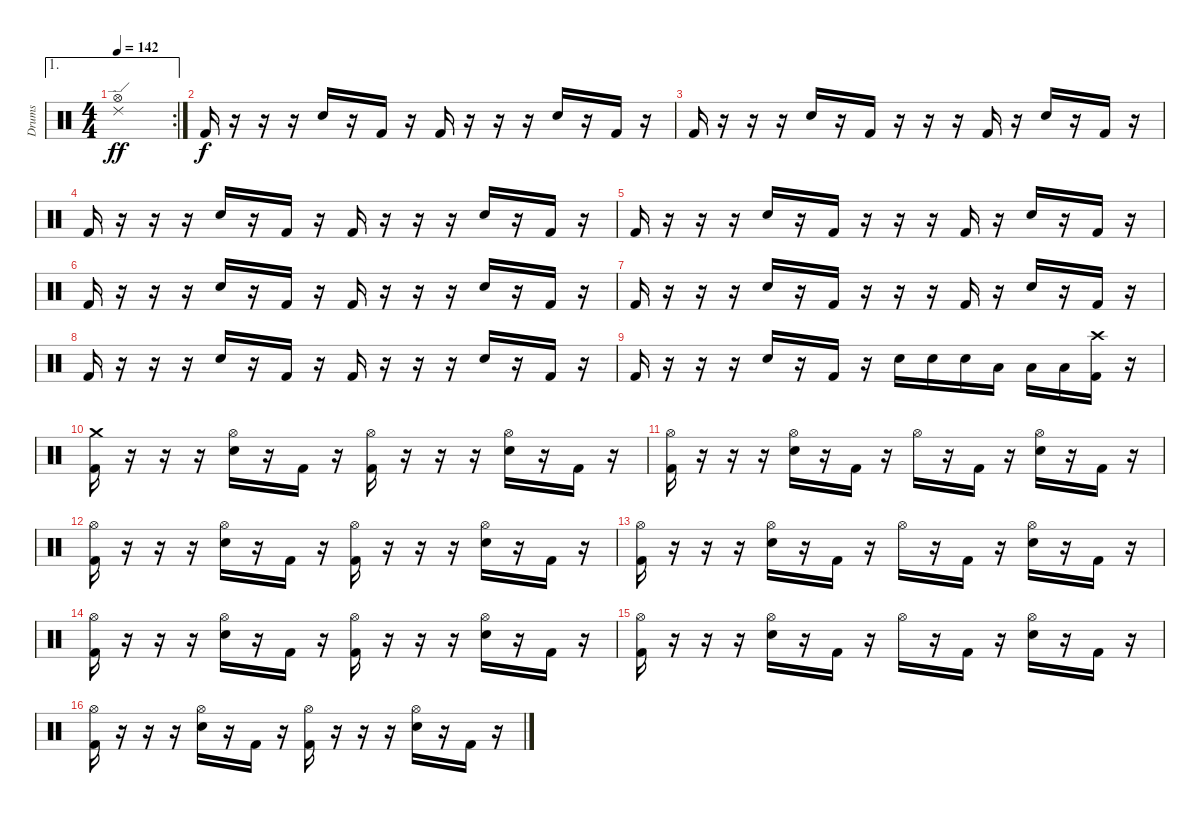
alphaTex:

\track ("Drums" "Drums") {instrument percussion}
\staff {score}
\articulation defaults
\ae 1
\rc 2
\ts (4 4)
\tempo 142
\clef neutral
\ks c
("Ride (edge) 2" "Hi-Hat (open)").1{dy ff} |
"Kick (hit) 2".16{dy f} r.16 r.16 r.16 "Electric Snare (hit)".16 r.16 "Kick (hit) 2".16 r.16 "Kick (hit) 2".16 r.16 r.16 r.16 "Electric Snare (hit)".16 r.16 "Kick (hit) 2".16 r.16 |
"Kick (hit) 2".16 r.16 r.16 r.16 "Electric Snare (hit)".16 r.16 "Kick (hit) 2".16 r.16 r.16 r.16 "Kick (hit) 2".16 r.16 "Electric Snare (hit)".16 r.16 "Kick (hit) 2".16 r.16 |
"Kick (hit) 2".16 r.16 r.16 r.16 "Electric Snare (hit)".16 r.16 "Kick (hit) 2".16 r.16 "Kick (hit) 2".16 r.16 r.16 r.16 "Electric Snare (hit)".16 r.16 "Kick (hit) 2".16 r.16 |
"Kick (hit) 2".16 r.16 r.16 r.16 "Electric Snare (hit)".16 r.16 "Kick (hit) 2".16 r.16 r.16 r.16 "Kick (hit) 2".16 r.16 "Electric Snare (hit)".16 r.16 "Kick (hit) 2".16 r.16 |
"Kick (hit) 2".16 r.16 r.16 r.16 "Electric Snare (hit)".16 r.16 "Kick (hit) 2".16 r.16 "Kick (hit) 2".16 r.16 r.16 r.16 "Electric Snare (hit)".16 r.16 "Kick (hit) 2".16 r.16 |
"Kick (hit) 2".16 r.16 r.16 r.16 "Electric Snare (hit)".16 r.16 "Kick (hit) 2".16 r.16 r.16 r.16 "Kick (hit) 2".16 r.16 "Electric Snare (hit)".16 r.16 "Kick (hit) 2".16 r.16 |
"Kick (hit) 2".16 r.16 r.16 r.16 "Electric Snare (hit)".16 r.16 "Kick (hit) 2".16 r.16 "Kick (hit) 2".16 r.16 r.16 r.16 "Electric Snare (hit)".16 r.16 "Kick (hit) 2".16 r.16 |
"Kick (hit) 2".16 r.16 r.16 r.16 "Electric Snare (hit)".16 r.16 "Kick (hit) 2".16 r.16 "Electric Snare (hit)".16 "Electric Snare (hit)".16 "Electric Snare (hit)".16 "Low Tom (hit)".16 "Low Tom (hit)".16 "Low Tom (hit)".16 ("Crash high (hit)" "Kick (hit) 2").16 r.16 |
("Crash medium (hit)" "Kick (hit) 2").16 r.16 r.16 r.16 ("Hi-Hat (open)" "Electric Snare (hit)").16 r.16 "Kick (hit) 2".16 r.16 ("Hi-Hat (open)" "Kick (hit) 2").16 r.16 r.16 r.16 ("Hi-Hat (open)" "Electric Snare (hit)").16 r.16 "Kick (hit) 2".16 r.16 |
("Hi-Hat (open)" "Kick (hit) 2").16 r.16 r.16 r.16 ("Hi-Hat (open)" "Electric Snare (hit)").16 r.16 "Kick (hit) 2".16 r.16 "Hi-Hat (open)".16 r.16 "Kick (hit) 2".16 r.16 ("Hi-Hat (open)" "Electric Snare (hit)").16 r.16 "Kick (hit) 2".16 r.16 |
("Hi-Hat (open)" "Kick (hit) 2").16 r.16 r.16 r.16 ("Hi-Hat (open)" "Electric Snare (hit)").16 r.16 "Kick (hit) 2".16 r.16 ("Hi-Hat (open)" "Kick (hit) 2").16 r.16 r.16 r.16 ("Hi-Hat (open)" "Electric Snare (hit)").16 r.16 "Kick (hit) 2".16 r.16 |
("Hi-Hat (open)" "Kick (hit) 2").16 r.16 r.16 r.16 ("Hi-Hat (open)" "Electric Snare (hit)").16 r.16 "Kick (hit) 2".16 r.16 "Hi-Hat (open)".16 r.16 "Kick (hit) 2".16 r.16 ("Hi-Hat (open)" "Electric Snare (hit)").16 r.16 "Kick (hit) 2".16 r.16 |
("Hi-Hat (open)" "Kick (hit) 2").16 r.16 r.16 r.16 ("Hi-Hat (open)" "Electric Snare (hit)").16 r.16 "Kick (hit) 2".16 r.16 ("Hi-Hat (open)" "Kick (hit) 2").16 r.16 r.16 r.16 ("Hi-Hat (open)" "Electric Snare (hit)").16 r.16 "Kick (hit) 2".16 r.16 |
("Hi-Hat (open)" "Kick (hit) 2").16 r.16 r.16 r.16 ("Hi-Hat (open)" "Electric Snare (hit)").16 r.16 "Kick (hit) 2".16 r.16 "Hi-Hat (open)".16 r.16 "Kick (hit) 2".16 r.16 ("Hi-Hat (open)" "Electric Snare (hit)").16 r.16 "Kick (hit) 2".16 r.16 |
("Hi-Hat (open)" "Kick (hit) 2").16 r.16 r.16 r.16 ("Hi-Hat (open)" "Electric Snare (hit)").16 r.16 "Kick (hit) 2".16 r.16 ("Hi-Hat (open)" "Kick (hit) 2").16 r.16 r.16 r.16 ("Hi-Hat (open)" "Electric Snare (hit)").16 r.16 "Kick (hit) 2".16 r.16
